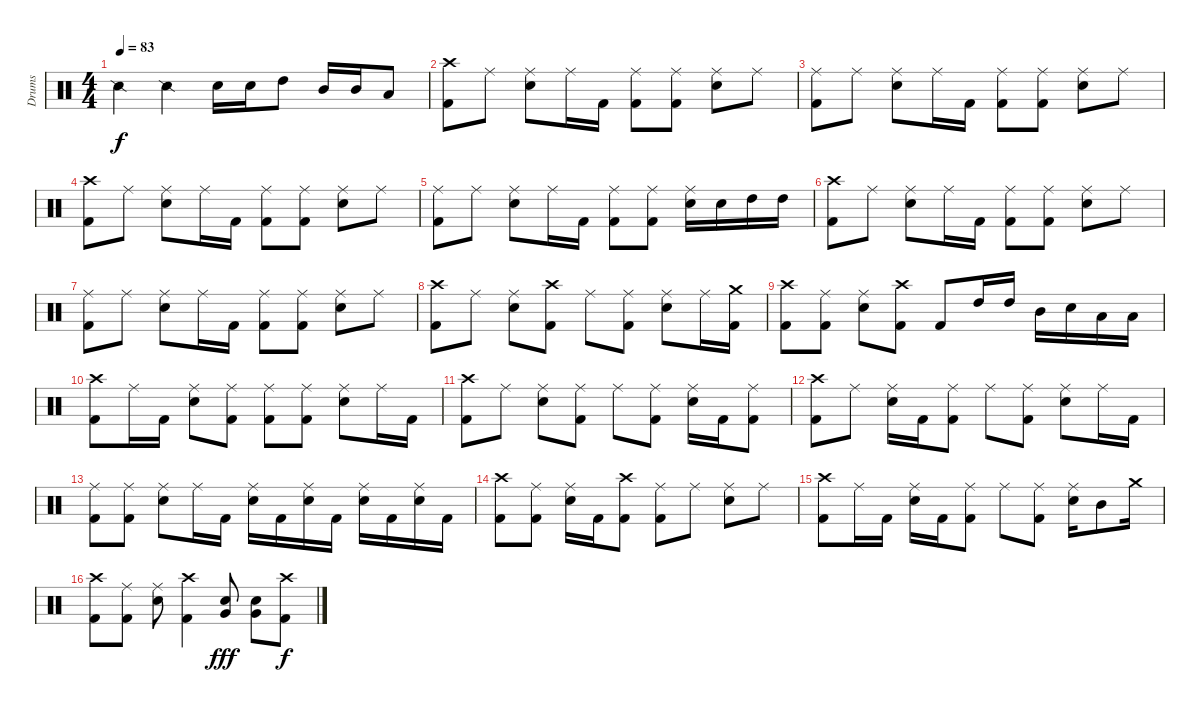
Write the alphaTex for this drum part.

\track ("Drums" "Drums") {instrument percussion}
\staff {score}
\articulation defaults
\ts (4 4)
\tempo 83
\clef neutral
\ks c "Snare (side stick) 2".4{dy f} "Snare (side stick) 2".4 "Electric Snare (hit)".16 "Electric Snare (hit)".16 "High Tom (hit)".8 "Mid Tom (hit)".16 "Mid Tom (hit)".16 "Low Tom (hit)".8
|
("Crash high (hit)" "Kick (hit) 2").8 "Ride (middle)".8 ("Ride (middle)" "Electric Snare (hit)").8 "Ride (middle)".16 "Kick (hit) 2".16 ("Ride (middle)" "Kick (hit) 2").8 ("Ride (middle)" "Kick (hit) 2").8 ("Ride (middle)" "Electric Snare (hit)").8 "Ride (middle)".8 |
("Ride (middle)" "Kick (hit) 2").8 "Ride (middle)".8 ("Ride (middle)" "Electric Snare (hit)").8 "Ride (middle)".16 "Kick (hit) 2".16 ("Ride (middle)" "Kick (hit) 2").8 ("Ride (middle)" "Kick (hit) 2").8 ("Ride (middle)" "Electric Snare (hit)").8 "Ride (middle)".8 |
("Crash high (hit)" "Kick (hit) 2").8 "Ride (middle)".8 ("Ride (middle)" "Electric Snare (hit)").8 "Ride (middle)".16 "Kick (hit) 2".16 ("Ride (middle)" "Kick (hit) 2").8 ("Ride (middle)" "Kick (hit) 2").8 ("Ride (middle)" "Electric Snare (hit)").8 "Ride (middle)".8 |
("Ride (middle)" "Kick (hit) 2").8 "Ride (middle)".8 ("Ride (middle)" "Electric Snare (hit)").8 "Ride (middle)".16 "Kick (hit) 2".16 ("Ride (middle)" "Kick (hit) 2").8 ("Ride (middle)" "Kick (hit) 2").8 ("Ride (middle)" "Electric Snare (hit)").16 "Electric Snare (hit)".16 "High Tom (hit)".16 "High Tom (hit)".16 |
("Crash high (hit)" "Kick (hit) 2").8 "Ride (middle)".8 ("Ride (middle)" "Electric Snare (hit)").8 "Ride (middle)".16 "Kick (hit) 2".16 ("Ride (middle)" "Kick (hit) 2").8 ("Ride (middle)" "Kick (hit) 2").8 ("Ride (middle)" "Electric Snare (hit)").8 "Ride (middle)".8 |
("Ride (middle)" "Kick (hit) 2").8 "Ride (middle)".8 ("Ride (middle)" "Electric Snare (hit)").8 "Ride (middle)".16 "Kick (hit) 2".16 ("Ride (middle)" "Kick (hit) 2").8 ("Ride (middle)" "Kick (hit) 2").8 ("Ride (middle)" "Electric Snare (hit)").8 "Ride (middle)".8 |
("Crash high (hit)" "Kick (hit) 2").8 "Ride (middle)".8 ("Ride (middle)" "Electric Snare (hit)").8 ("Crash high (hit)" "Kick (hit) 2").8 "Ride (middle)".8 ("Ride (middle)" "Kick (hit) 2").8 ("Ride (middle)" "Electric Snare (hit)").8 "Ride (middle)".16 ("Crash medium (hit)" "Kick (hit) 2").16 |
("Crash high (hit)" "Kick (hit) 2").8 ("Ride (middle)" "Kick (hit) 2").8 ("Ride (middle)" "Electric Snare (hit)").8 ("Crash high (hit)" "Kick (hit) 2").8 "Kick (hit) 2".8 "High Tom (hit)".16 "High Tom (hit)".16 "Mid Tom (hit)".16 "Electric Snare (hit)".16 "Low Tom (hit)".16 "Low Tom (hit)".16 |
("Crash high (hit)" "Kick (hit) 2").8 "Ride (middle)".16 "Kick (hit) 2".16 ("Ride (middle)" "Electric Snare (hit)").8 ("Ride (middle)" "Kick (hit) 2").8 ("Ride (middle)" "Kick (hit) 2").8 ("Ride (middle)" "Kick (hit) 2").8 ("Ride (middle)" "Electric Snare (hit)").8 "Ride (middle)".16 "Kick (hit) 2".16 |
("Crash high (hit)" "Kick (hit) 2").8 "Ride (middle)".8 ("Ride (middle)" "Electric Snare (hit)").8 ("Ride (middle)" "Kick (hit) 2").8 "Ride (middle)".8 ("Ride (middle)" "Kick (hit) 2").8 ("Ride (middle)" "Electric Snare (hit)").16 "Kick (hit) 2".16 ("Ride (middle)" "Kick (hit) 2").8 |
("Crash high (hit)" "Kick (hit) 2").8 "Ride (middle)".8 ("Ride (middle)" "Electric Snare (hit)").16 "Kick (hit) 2".16 ("Ride (middle)" "Kick (hit) 2").8 "Ride (middle)".8 ("Ride (middle)" "Kick (hit) 2").8 ("Ride (middle)" "Electric Snare (hit)").8 "Ride (middle)".16 "Kick (hit) 2".16 |
("Ride (middle)" "Kick (hit) 2").8 ("Ride (middle)" "Kick (hit) 2").8 ("Ride (middle)" "Electric Snare (hit)").8 "Ride (middle)".16 "Kick (hit) 2".16 ("Ride (middle)" "Electric Snare (hit)").16 "Kick (hit) 2".16 ("Ride (middle)" "Electric Snare (hit)").16 "Kick (hit) 2".16 ("Ride (middle)" "Electric Snare (hit)").16 "Kick (hit) 2".16 ("Ride (middle)" "Electric Snare (hit)").16 "Kick (hit) 2".16 |
("Crash high (hit)" "Kick (hit) 2").8 ("Ride (middle)" "Kick (hit) 2").8 ("Ride (middle)" "Electric Snare (hit)").16 "Kick (hit) 2".16 ("Crash high (hit)" "Kick (hit) 2").8 ("Ride (middle)" "Kick (hit) 2").8 "Ride (middle)".8 ("Ride (middle)" "Electric Snare (hit)").8 "Ride (middle)".8 |
("Crash high (hit)" "Kick (hit) 2").8 "Ride (middle)".16 "Kick (hit) 2".16 ("Ride (middle)" "Electric Snare (hit)").16 "Kick (hit) 2".16 ("Ride (middle)" "Kick (hit) 2").8 "Ride (middle)".8 ("Ride (middle)" "Kick (hit) 2").8 ("Ride (middle)" "Electric Snare (hit)").16 "Mid Tom (hit)".8 "Crash medium (hit)".16 |
("Crash high (hit)" "Kick (hit) 2").8 ("Ride (middle)" "Kick (hit) 2").8 ("Ride (middle)" "Electric Snare (hit)").8 ("Crash high (hit)" "Kick (hit) 2").4 ("Electric Snare (hit)" "Very Low Tom (hit)").8{dy fff} ("Electric Snare (hit)" "Very Low Tom (hit)").8 ("Crash high (hit)" "Kick (hit) 2").8{dy f}
